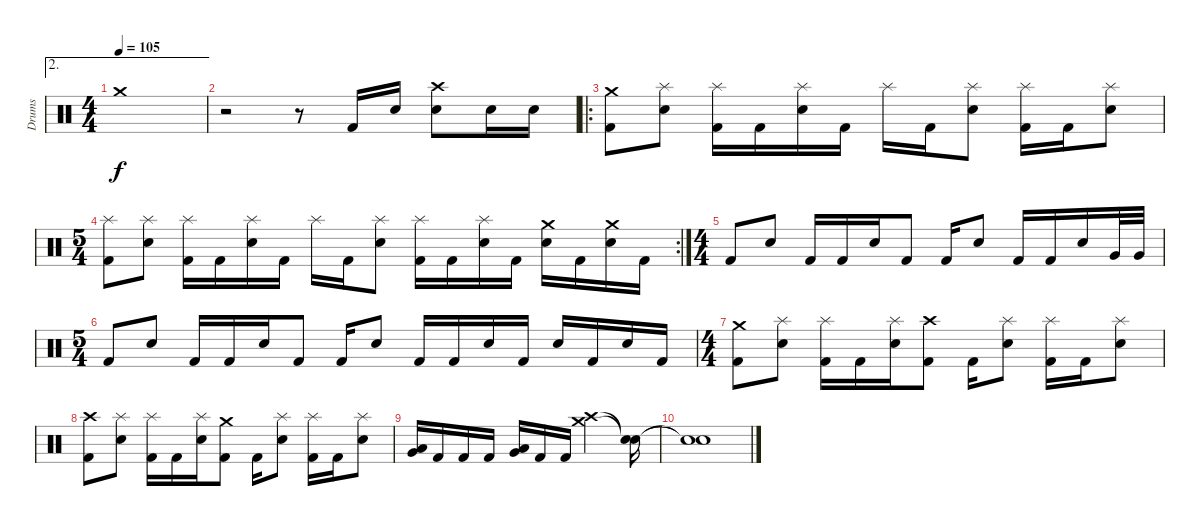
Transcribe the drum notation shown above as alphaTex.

\track ("Drums" "Drums") {instrument percussion}
\staff {score}
\articulation defaults
\ae 2
\ts (4 4)
\tempo 105
\clef neutral
\ks c "Crash medium (hit)".1{dy f}
|
r.2 r.8 "Kick (hit) 2".16 "Electric Snare (hit)".16 ("Crash high (hit)" "Electric Snare (hit)").8 "Electric Snare (hit)".16 "Electric Snare (hit)".16 |
\ro
("Crash medium (hit)" "Kick (hit) 2").8 ("Splash (hit)" "Electric Snare (hit)").8 ("Splash (hit)" "Kick (hit) 2").16 "Kick (hit) 2".16 ("Splash (hit)" "Electric Snare (hit)").16 "Kick (hit) 2".16 "Splash (hit)".16 "Kick (hit) 2".16 ("Splash (hit)" "Electric Snare (hit)").8 ("Splash (hit)" "Kick (hit) 2").16 "Kick (hit) 2".16 ("Splash (hit)" "Electric Snare (hit)").8 |
\rc 2
\ts (5 4)
("Splash (hit)" "Kick (hit) 2").8 ("Splash (hit)" "Electric Snare (hit)").8 ("Splash (hit)" "Kick (hit) 2").16 "Kick (hit) 2".16 ("Splash (hit)" "Electric Snare (hit)").16 "Kick (hit) 2".16 "Splash (hit)".16 "Kick (hit) 2".16 ("Splash (hit)" "Electric Snare (hit)").8 ("Splash (hit)" "Kick (hit) 2").16 "Kick (hit) 2".16 ("Splash (hit)" "Electric Snare (hit)").16 "Kick (hit) 2".16 ("Crash medium (hit)" "Electric Snare (hit)").16 "Kick (hit) 2".16 ("Crash medium (hit)" "Electric Snare (hit)").16 "Kick (hit) 2".16 |
\ts (4 4)
"Kick (hit) 2".8 "Electric Snare (hit)".8 "Kick (hit) 2".16 "Kick (hit) 2".16 "Electric Snare (hit)".16 "Kick (hit) 2".8 "Kick (hit) 2".16 "Electric Snare (hit)".8 "Kick (hit) 2".16 "Kick (hit) 2".16 "Electric Snare (hit)".16 "Very Low Tom (hit)".32 "Very Low Tom (hit)".32 |
\ts (5 4)
"Kick (hit) 2".8 "Electric Snare (hit)".8 "Kick (hit) 2".16 "Kick (hit) 2".16 "Electric Snare (hit)".16 "Kick (hit) 2".8 "Kick (hit) 2".16 "Electric Snare (hit)".8 "Kick (hit) 2".16 "Kick (hit) 2".16 "Electric Snare (hit)".16 "Kick (hit) 2".16 "Electric Snare (hit)".16 "Kick (hit) 2".16 "Electric Snare (hit)".16 "Kick (hit) 2".16 |
\ts (4 4)
("Crash medium (hit)" "Kick (hit) 2").8 ("Splash (hit)" "Electric Snare (hit)").8 ("Splash (hit)" "Kick (hit) 2").16 "Kick (hit) 2".16 ("Splash (hit)" "Electric Snare (hit)").16 ("Crash high (hit)" "Kick (hit) 2").8 "Kick (hit) 2".16 ("Splash (hit)" "Electric Snare (hit)").8 ("Splash (hit)" "Kick (hit) 2").16 "Kick (hit) 2".16 ("Splash (hit)" "Electric Snare (hit)").8 |
("Crash high (hit)" "Kick (hit) 2").8 ("Splash (hit)" "Electric Snare (hit)").8 ("Splash (hit)" "Kick (hit) 2").16 "Kick (hit) 2".16 ("Splash (hit)" "Electric Snare (hit)").16 ("Crash medium (hit)" "Kick (hit) 2").8 "Kick (hit) 2".16 ("Splash (hit)" "Electric Snare (hit)").8 ("Splash (hit)" "Kick (hit) 2").16 "Kick (hit) 2".16 ("Splash (hit)" "Electric Snare (hit)").8 |
("Low Tom (hit)" "Very Low Tom (hit)").16 "Kick (hit) 2".16 "Kick (hit) 2".16 "Kick (hit) 2".16 ("Low Tom (hit)" "Very Low Tom (hit)").16 "Kick (hit) 2".16 "Kick (hit) 2".16 ("Crash medium (hit)" "Crash high (hit)").2 ("Snare (hit)"{t} "Snare (hit)"{t}).16 |
("Snare (hit)"{t} "Snare (hit)"{t}).1
